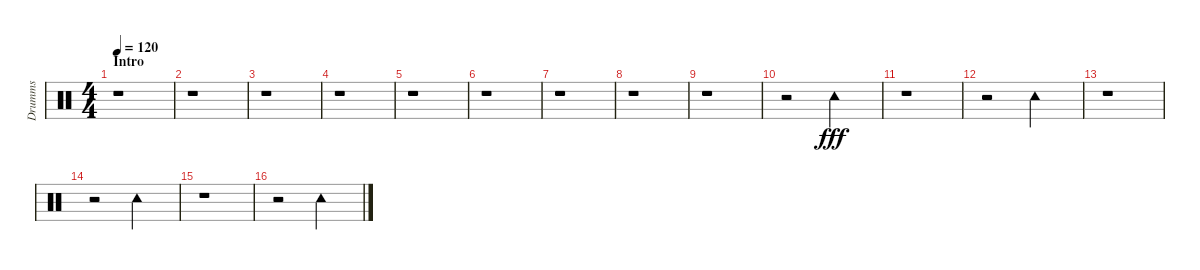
\track ("Drumms" "Drumms") {instrument percussion}
\staff {score}
\articulation defaults
\ts (4 4)
\section ("" "Intro")
\tempo 120
\clef neutral
\ks c
r.1{dy fff} |
r.1 |
r.1 |
r.1 |
r.1 |
r.1 |
r.1 |
r.1 |
r.1 |
\section ("" "")
r.2 "Tambourine (hit)".2 |
r.1 |
r.2 "Tambourine (hit)".2 |
r.1 |
r.2 "Tambourine (hit)".2 |
r.1 |
r.2 "Tambourine (hit)".2
